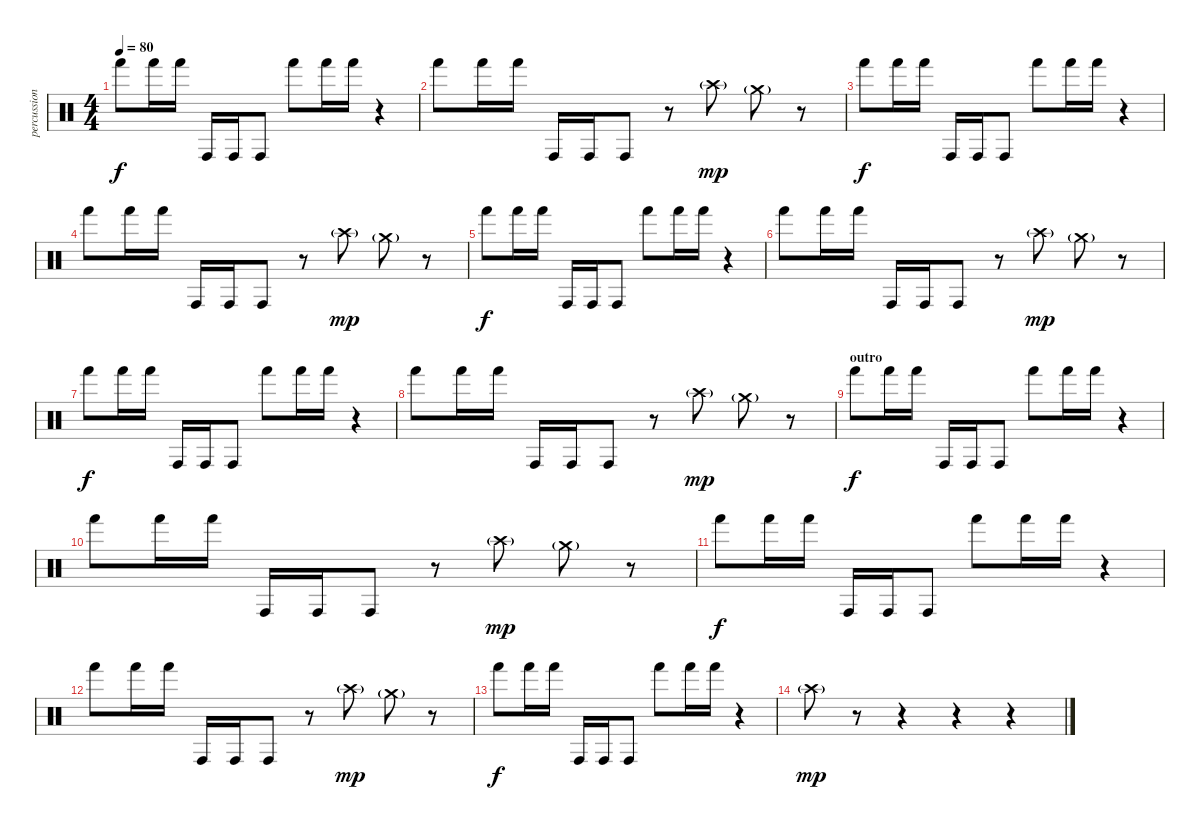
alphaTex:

\track ("percussion" "percussion") {instrument percussion}
\staff {score}
\articulation defaults
\ts (4 4)
\tempo 80
\clef neutral
\ks c "Hand (hit)".8{dy f} "Hand (hit)".16 "Hand (hit)".16 "Conga high (hit)".16 "Conga high (hit)".16 "Conga high (hit)".8 "Hand (hit)".8 "Hand (hit)".16 "Hand (hit)".16
r.4 |
"Hand (hit)".8 "Hand (hit)".16 "Hand (hit)".16 "Conga high (hit)".16 "Conga high (hit)".16 "Conga high (hit)".8 r.8 "Crash high (hit)"{g}.8{dy mp} "Crash medium (hit)"{g}.8 r.8 |
"Hand (hit)".8{dy f} "Hand (hit)".16 "Hand (hit)".16 "Conga high (hit)".16 "Conga high (hit)".16 "Conga high (hit)".8 "Hand (hit)".8 "Hand (hit)".16 "Hand (hit)".16 r.4 |
"Hand (hit)".8 "Hand (hit)".16 "Hand (hit)".16 "Conga high (hit)".16 "Conga high (hit)".16 "Conga high (hit)".8 r.8 "Crash high (hit)"{g}.8{dy mp} "Crash medium (hit)"{g}.8 r.8 |
"Hand (hit)".8{dy f} "Hand (hit)".16 "Hand (hit)".16 "Conga high (hit)".16 "Conga high (hit)".16 "Conga high (hit)".8 "Hand (hit)".8 "Hand (hit)".16 "Hand (hit)".16 r.4 |
"Hand (hit)".8 "Hand (hit)".16 "Hand (hit)".16 "Conga high (hit)".16 "Conga high (hit)".16 "Conga high (hit)".8 r.8 "Crash high (hit)"{g}.8{dy mp} "Crash medium (hit)"{g}.8 r.8 |
"Hand (hit)".8{dy f} "Hand (hit)".16 "Hand (hit)".16 "Conga high (hit)".16 "Conga high (hit)".16 "Conga high (hit)".8 "Hand (hit)".8 "Hand (hit)".16 "Hand (hit)".16 r.4 |
"Hand (hit)".8 "Hand (hit)".16 "Hand (hit)".16 "Conga high (hit)".16 "Conga high (hit)".16 "Conga high (hit)".8 r.8 "Crash high (hit)"{g}.8{dy mp} "Crash medium (hit)"{g}.8 r.8 |
\section ("" "outro")
"Hand (hit)".8{dy f} "Hand (hit)".16 "Hand (hit)".16 "Conga high (hit)".16 "Conga high (hit)".16 "Conga high (hit)".8 "Hand (hit)".8 "Hand (hit)".16 "Hand (hit)".16 r.4 |
"Hand (hit)".8 "Hand (hit)".16 "Hand (hit)".16 "Conga high (hit)".16 "Conga high (hit)".16 "Conga high (hit)".8 r.8 "Crash high (hit)"{g}.8{dy mp} "Crash medium (hit)"{g}.8 r.8 |
"Hand (hit)".8{dy f} "Hand (hit)".16 "Hand (hit)".16 "Conga high (hit)".16 "Conga high (hit)".16 "Conga high (hit)".8 "Hand (hit)".8 "Hand (hit)".16 "Hand (hit)".16 r.4 |
"Hand (hit)".8 "Hand (hit)".16 "Hand (hit)".16 "Conga high (hit)".16 "Conga high (hit)".16 "Conga high (hit)".8 r.8 "Crash high (hit)"{g}.8{dy mp} "Crash medium (hit)"{g}.8 r.8 |
"Hand (hit)".8{dy f} "Hand (hit)".16 "Hand (hit)".16 "Conga high (hit)".16 "Conga high (hit)".16 "Conga high (hit)".8 "Hand (hit)".8 "Hand (hit)".16 "Hand (hit)".16 r.4 |
"Crash high (hit)"{g}.8{dy mp} r.8 r.4 r.4 r.4
